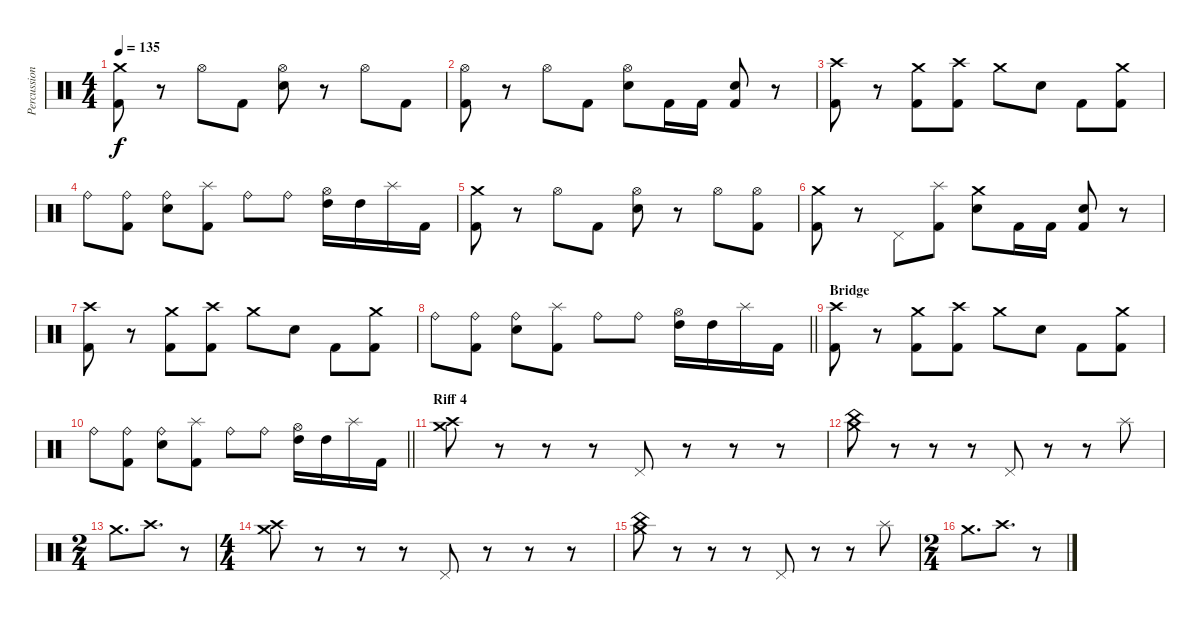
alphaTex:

\track ("Percussion" "Percussion") {instrument percussion}
\staff {score}
\articulation defaults
\ts (4 4)
\tempo 135
\clef neutral
\ks c
("Crash medium (hit)" "Kick (hit) 2").8{dy f} r.8 "Hi-Hat (open)".8 "Kick (hit) 2".8 ("Hi-Hat (open)" "Electric Snare (hit)").8 r.8 "Hi-Hat (open)".8 "Kick (hit) 2".8 |
("Hi-Hat (open)" "Kick (hit) 2").8 r.8 "Hi-Hat (open)".8 "Kick (hit) 2".8 ("Hi-Hat (open)" "Electric Snare (hit)").8 "Kick (hit) 2".16 "Kick (hit) 2".16 ("Electric Snare (hit)" "Kick (hit) 2").8 r.8 |
("Crash high (hit)" "Kick (hit) 2").8 r.8 ("Crash medium (hit)" "Kick (hit) 2").8 ("Crash high (hit)" "Kick (hit) 2").8 "Crash medium (hit)".8 "Electric Snare (hit)".8 "Kick (hit) 2".8 ("Crash medium (hit)" "Kick (hit) 2").8 |
"Ride (bell)".8 ("Ride (bell)" "Kick (hit) 2").8 ("Ride (bell)" "Electric Snare (hit)").8 ("Splash (hit)" "Kick (hit) 2").8 "Ride (bell)".8 "Ride (bell)".8 ("Hi-Hat (open)" "High Tom (hit)").16 "High Tom (hit)".16 "Splash (hit)".16 "Kick (hit) 2".16 |
("Crash medium (hit)" "Kick (hit) 2").8 r.8 "Hi-Hat (open)".8 "Kick (hit) 2".8 ("Hi-Hat (open)" "Electric Snare (hit)").8 r.8 "Hi-Hat (open)".8 ("Hi-Hat (open)" "Kick (hit) 2").8 |
("Crash medium (hit)" "Kick (hit) 2").8 r.8 "Pedal Hi-Hat (hit)".8 ("Splash (hit)" "Kick (hit) 2").8 ("Crash medium (hit)" "Electric Snare (hit)").8 "Kick (hit) 2".16 "Kick (hit) 2".16 ("Electric Snare (hit)" "Kick (hit) 2").8 r.8 |
("Crash high (hit)" "Kick (hit) 2").8 r.8 ("Crash medium (hit)" "Kick (hit) 2").8 ("Crash high (hit)" "Kick (hit) 2").8 "Crash medium (hit)".8 "Electric Snare (hit)".8 "Kick (hit) 2".8 ("Crash medium (hit)" "Kick (hit) 2").8 |
\barLineRight lightlight "Ride (bell)".8
("Ride (bell)" "Kick (hit) 2").8 ("Ride (bell)" "Electric Snare (hit)").8 ("Splash (hit)" "Kick (hit) 2").8 "Ride (bell)".8 "Ride (bell)".8 ("Hi-Hat (open)" "High Tom (hit)").16 "High Tom (hit)".16 "Splash (hit)".16 "Kick (hit) 2".16 |
\section ("" "Bridge")
("Crash high (hit)" "Kick (hit) 2").8 r.8 ("Crash medium (hit)" "Kick (hit) 2").8 ("Crash high (hit)" "Kick (hit) 2").8 "Crash medium (hit)".8 "Electric Snare (hit)".8 "Kick (hit) 2".8 ("Crash medium (hit)" "Kick (hit) 2").8 |
\barLineRight lightlight "Ride (bell)".8
("Ride (bell)" "Kick (hit) 2").8 ("Ride (bell)" "Electric Snare (hit)").8 ("Splash (hit)" "Kick (hit) 2").8 "Ride (bell)".8 "Ride (bell)".8 ("Hi-Hat (open)" "High Tom (hit)").16 "High Tom (hit)".16 "Splash (hit)".16 "Kick (hit) 2".16 |
\section ("" "Riff 4")
("Crash medium (hit)" "Crash high (hit)").8 r.8 r.8 r.8 "Pedal Hi-Hat (hit)".8 r.8 r.8 r.8 |
("China (hit)" "Crash medium (hit)").8 r.8 r.8 r.8 "Pedal Hi-Hat (hit)".8 r.8 r.8 "Splash (hit)".8 |
\ts (2 4)
"Crash medium (hit)".8{d} "Crash high (hit)".8{d} r.8 |
\ts (4 4)
("Crash medium (hit)" "Crash high (hit)").8 r.8 r.8 r.8 "Pedal Hi-Hat (hit)".8 r.8 r.8 r.8 |
("China (hit)" "Crash medium (hit)").8 r.8 r.8 r.8 "Pedal Hi-Hat (hit)".8 r.8 r.8 "Splash (hit)".8 |
\ts (2 4)
"Crash medium (hit)".8{d} "Crash high (hit)".8{d} r.8
